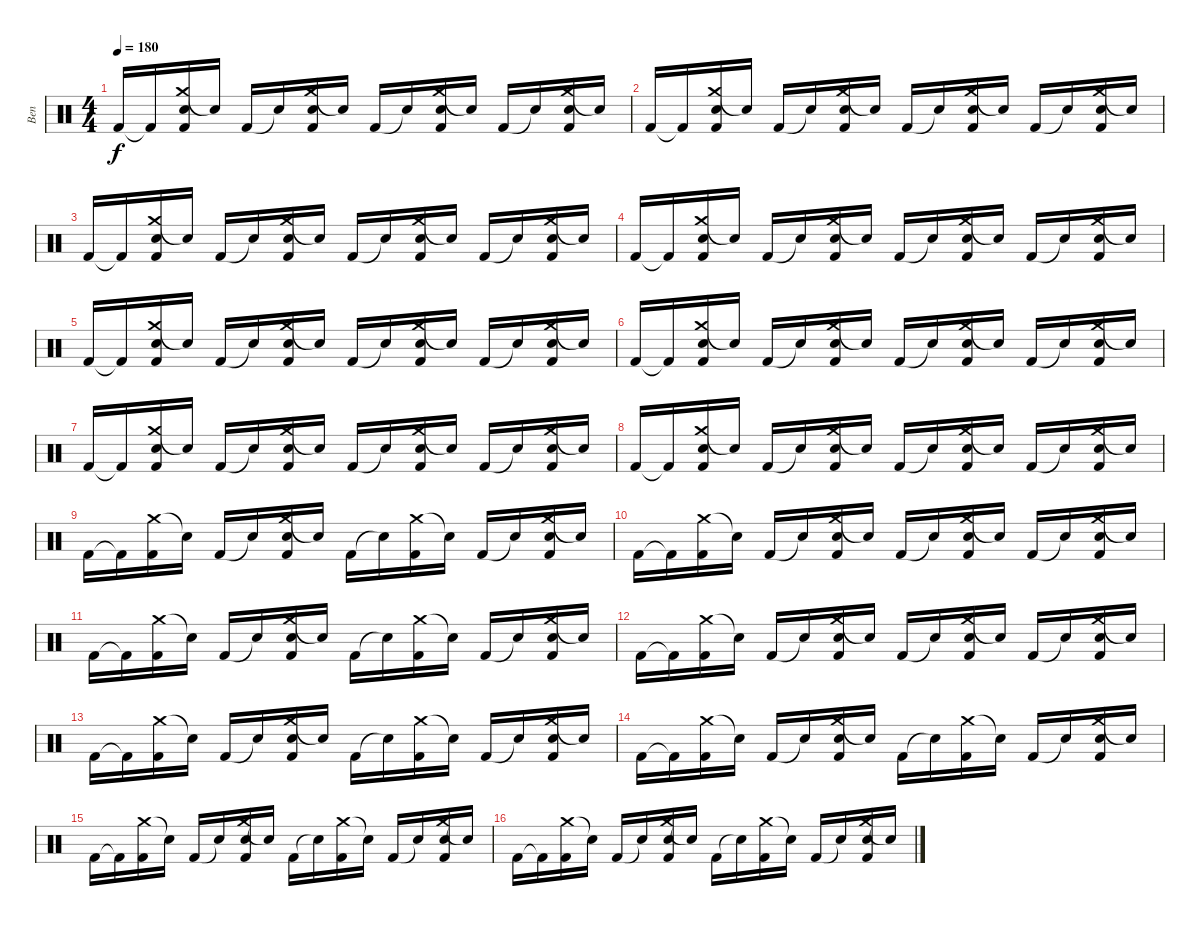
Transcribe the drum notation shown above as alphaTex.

\track ("Ben" "Ben") {instrument percussion}
\staff {score}
\articulation defaults
\ts (4 4)
\tempo 180
\clef neutral
\ks c "Kick (hit) 2".16{dy f} "Kick (hit) 2"{t}.16
("Crash medium (hit)" "Electric Snare (hit)" "Kick (hit) 2").16 "Snare (hit)"{t}.16 "Kick (hit) 2".16 "Snare (hit)"{t}.16 ("Crash medium (hit)" "Electric Snare (hit)" "Kick (hit) 2").16 "Snare (hit)"{t}.16 "Kick (hit) 2".16 "Snare (hit)"{t}.16 ("Crash medium (hit)" "Electric Snare (hit)" "Kick (hit) 2").16 "Snare (hit)"{t}.16 "Kick (hit) 2".16 "Snare (hit)"{t}.16 ("Crash medium (hit)" "Electric Snare (hit)" "Kick (hit) 2").16 "Snare (hit)"{t}.16 |
"Kick (hit) 2".16 "Kick (hit) 2"{t}.16 ("Crash medium (hit)" "Electric Snare (hit)" "Kick (hit) 2").16 "Snare (hit)"{t}.16 "Kick (hit) 2".16 "Snare (hit)"{t}.16 ("Crash medium (hit)" "Electric Snare (hit)" "Kick (hit) 2").16 "Snare (hit)"{t}.16 "Kick (hit) 2".16 "Snare (hit)"{t}.16 ("Crash medium (hit)" "Electric Snare (hit)" "Kick (hit) 2").16 "Snare (hit)"{t}.16 "Kick (hit) 2".16 "Snare (hit)"{t}.16 ("Crash medium (hit)" "Electric Snare (hit)" "Kick (hit) 2").16 "Snare (hit)"{t}.16 |
"Kick (hit) 2".16 "Kick (hit) 2"{t}.16 ("Crash medium (hit)" "Electric Snare (hit)" "Kick (hit) 2").16 "Snare (hit)"{t}.16 "Kick (hit) 2".16 "Snare (hit)"{t}.16 ("Crash medium (hit)" "Electric Snare (hit)" "Kick (hit) 2").16 "Snare (hit)"{t}.16 "Kick (hit) 2".16 "Snare (hit)"{t}.16 ("Crash medium (hit)" "Electric Snare (hit)" "Kick (hit) 2").16 "Snare (hit)"{t}.16 "Kick (hit) 2".16 "Snare (hit)"{t}.16 ("Crash medium (hit)" "Electric Snare (hit)" "Kick (hit) 2").16 "Snare (hit)"{t}.16 |
"Kick (hit) 2".16 "Kick (hit) 2"{t}.16 ("Crash medium (hit)" "Electric Snare (hit)" "Kick (hit) 2").16 "Snare (hit)"{t}.16 "Kick (hit) 2".16 "Snare (hit)"{t}.16 ("Crash medium (hit)" "Electric Snare (hit)" "Kick (hit) 2").16 "Snare (hit)"{t}.16 "Kick (hit) 2".16 "Snare (hit)"{t}.16 ("Crash medium (hit)" "Electric Snare (hit)" "Kick (hit) 2").16 "Snare (hit)"{t}.16 "Kick (hit) 2".16 "Snare (hit)"{t}.16 ("Crash medium (hit)" "Electric Snare (hit)" "Kick (hit) 2").16 "Snare (hit)"{t}.16 |
"Kick (hit) 2".16 "Kick (hit) 2"{t}.16 ("Crash medium (hit)" "Electric Snare (hit)" "Kick (hit) 2").16 "Snare (hit)"{t}.16 "Kick (hit) 2".16 "Snare (hit)"{t}.16 ("Crash medium (hit)" "Electric Snare (hit)" "Kick (hit) 2").16 "Snare (hit)"{t}.16 "Kick (hit) 2".16 "Snare (hit)"{t}.16 ("Crash medium (hit)" "Electric Snare (hit)" "Kick (hit) 2").16 "Snare (hit)"{t}.16 "Kick (hit) 2".16 "Snare (hit)"{t}.16 ("Crash medium (hit)" "Electric Snare (hit)" "Kick (hit) 2").16 "Snare (hit)"{t}.16 |
"Kick (hit) 2".16 "Kick (hit) 2"{t}.16 ("Crash medium (hit)" "Electric Snare (hit)" "Kick (hit) 2").16 "Snare (hit)"{t}.16 "Kick (hit) 2".16 "Snare (hit)"{t}.16 ("Crash medium (hit)" "Electric Snare (hit)" "Kick (hit) 2").16 "Snare (hit)"{t}.16 "Kick (hit) 2".16 "Snare (hit)"{t}.16 ("Crash medium (hit)" "Electric Snare (hit)" "Kick (hit) 2").16 "Snare (hit)"{t}.16 "Kick (hit) 2".16 "Snare (hit)"{t}.16 ("Crash medium (hit)" "Electric Snare (hit)" "Kick (hit) 2").16 "Snare (hit)"{t}.16 |
"Kick (hit) 2".16 "Kick (hit) 2"{t}.16 ("Crash medium (hit)" "Electric Snare (hit)" "Kick (hit) 2").16 "Snare (hit)"{t}.16 "Kick (hit) 2".16 "Snare (hit)"{t}.16 ("Crash medium (hit)" "Electric Snare (hit)" "Kick (hit) 2").16 "Snare (hit)"{t}.16 "Kick (hit) 2".16 "Snare (hit)"{t}.16 ("Crash medium (hit)" "Electric Snare (hit)" "Kick (hit) 2").16 "Snare (hit)"{t}.16 "Kick (hit) 2".16 "Snare (hit)"{t}.16 ("Crash medium (hit)" "Electric Snare (hit)" "Kick (hit) 2").16 "Snare (hit)"{t}.16 |
"Kick (hit) 2".16 "Kick (hit) 2"{t}.16 ("Crash medium (hit)" "Electric Snare (hit)" "Kick (hit) 2").16 "Snare (hit)"{t}.16 "Kick (hit) 2".16 "Snare (hit)"{t}.16 ("Crash medium (hit)" "Electric Snare (hit)" "Kick (hit) 2").16 "Snare (hit)"{t}.16 "Kick (hit) 2".16 "Snare (hit)"{t}.16 ("Crash medium (hit)" "Electric Snare (hit)" "Kick (hit) 2").16 "Snare (hit)"{t}.16 "Kick (hit) 2".16 "Snare (hit)"{t}.16 ("Crash medium (hit)" "Electric Snare (hit)" "Kick (hit) 2").16 "Snare (hit)"{t}.16 |
"Kick (hit) 2".16 "Kick (hit) 2"{t}.16 ("Crash medium (hit)" "Kick (hit) 2").16 "Snare (hit)"{t}.16 "Kick (hit) 2".16 "Snare (hit)"{t}.16 ("Crash medium (hit)" "Electric Snare (hit)" "Kick (hit) 2").16 "Snare (hit)"{t}.16 "Kick (hit) 2".16 "Snare (hit)"{t}.16 ("Crash medium (hit)" "Kick (hit) 2").16 "Snare (hit)"{t}.16 "Kick (hit) 2".16 "Snare (hit)"{t}.16 ("Crash medium (hit)" "Electric Snare (hit)" "Kick (hit) 2").16 "Snare (hit)"{t}.16 |
"Kick (hit) 2".16 "Kick (hit) 2"{t}.16 ("Crash medium (hit)" "Kick (hit) 2").16 "Snare (hit)"{t}.16 "Kick (hit) 2".16 "Snare (hit)"{t}.16 ("Crash medium (hit)" "Electric Snare (hit)" "Kick (hit) 2").16 "Snare (hit)"{t}.16 "Kick (hit) 2".16 "Snare (hit)"{t}.16 ("Crash medium (hit)" "Electric Snare (hit)" "Kick (hit) 2").16 "Snare (hit)"{t}.16 "Kick (hit) 2".16 "Snare (hit)"{t}.16 ("Crash medium (hit)" "Electric Snare (hit)" "Kick (hit) 2").16 "Snare (hit)"{t}.16 |
"Kick (hit) 2".16 "Kick (hit) 2"{t}.16 ("Crash medium (hit)" "Kick (hit) 2").16 "Snare (hit)"{t}.16 "Kick (hit) 2".16 "Snare (hit)"{t}.16 ("Crash medium (hit)" "Electric Snare (hit)" "Kick (hit) 2").16 "Snare (hit)"{t}.16 "Kick (hit) 2".16 "Snare (hit)"{t}.16 ("Crash medium (hit)" "Kick (hit) 2").16 "Snare (hit)"{t}.16 "Kick (hit) 2".16 "Snare (hit)"{t}.16 ("Crash medium (hit)" "Electric Snare (hit)" "Kick (hit) 2").16 "Snare (hit)"{t}.16 |
"Kick (hit) 2".16 "Kick (hit) 2"{t}.16 ("Crash medium (hit)" "Kick (hit) 2").16 "Snare (hit)"{t}.16 "Kick (hit) 2".16 "Snare (hit)"{t}.16 ("Crash medium (hit)" "Electric Snare (hit)" "Kick (hit) 2").16 "Snare (hit)"{t}.16 "Kick (hit) 2".16 "Snare (hit)"{t}.16 ("Crash medium (hit)" "Electric Snare (hit)" "Kick (hit) 2").16 "Snare (hit)"{t}.16 "Kick (hit) 2".16 "Snare (hit)"{t}.16 ("Crash medium (hit)" "Electric Snare (hit)" "Kick (hit) 2").16 "Snare (hit)"{t}.16 |
"Kick (hit) 2".16 "Kick (hit) 2"{t}.16 ("Crash medium (hit)" "Kick (hit) 2").16 "Snare (hit)"{t}.16 "Kick (hit) 2".16 "Snare (hit)"{t}.16 ("Crash medium (hit)" "Electric Snare (hit)" "Kick (hit) 2").16 "Snare (hit)"{t}.16 "Kick (hit) 2".16 "Snare (hit)"{t}.16 ("Crash medium (hit)" "Kick (hit) 2").16 "Snare (hit)"{t}.16 "Kick (hit) 2".16 "Snare (hit)"{t}.16 ("Crash medium (hit)" "Electric Snare (hit)" "Kick (hit) 2").16 "Snare (hit)"{t}.16 |
"Kick (hit) 2".16 "Kick (hit) 2"{t}.16 ("Crash medium (hit)" "Kick (hit) 2").16 "Snare (hit)"{t}.16 "Kick (hit) 2".16 "Snare (hit)"{t}.16 ("Crash medium (hit)" "Electric Snare (hit)" "Kick (hit) 2").16 "Snare (hit)"{t}.16 "Kick (hit) 2".16 "Snare (hit)"{t}.16 ("Crash medium (hit)" "Kick (hit) 2").16 "Snare (hit)"{t}.16 "Kick (hit) 2".16 "Snare (hit)"{t}.16 ("Crash medium (hit)" "Electric Snare (hit)" "Kick (hit) 2").16 "Snare (hit)"{t}.16 |
"Kick (hit) 2".16 "Kick (hit) 2"{t}.16 ("Crash medium (hit)" "Kick (hit) 2").16 "Snare (hit)"{t}.16 "Kick (hit) 2".16 "Snare (hit)"{t}.16 ("Crash medium (hit)" "Electric Snare (hit)" "Kick (hit) 2").16 "Snare (hit)"{t}.16 "Kick (hit) 2".16 "Snare (hit)"{t}.16 ("Crash medium (hit)" "Kick (hit) 2").16 "Snare (hit)"{t}.16 "Kick (hit) 2".16 "Snare (hit)"{t}.16 ("Crash medium (hit)" "Electric Snare (hit)" "Kick (hit) 2").16 "Snare (hit)"{t}.16 |
"Kick (hit) 2".16 "Kick (hit) 2"{t}.16 ("Crash medium (hit)" "Kick (hit) 2").16 "Snare (hit)"{t}.16 "Kick (hit) 2".16 "Snare (hit)"{t}.16 ("Crash medium (hit)" "Electric Snare (hit)" "Kick (hit) 2").16 "Snare (hit)"{t}.16 "Kick (hit) 2".16 "Snare (hit)"{t}.16 ("Crash medium (hit)" "Kick (hit) 2").16 "Snare (hit)"{t}.16 "Kick (hit) 2".16 "Snare (hit)"{t}.16 ("Crash medium (hit)" "Electric Snare (hit)" "Kick (hit) 2").16 "Snare (hit)"{t}.16
